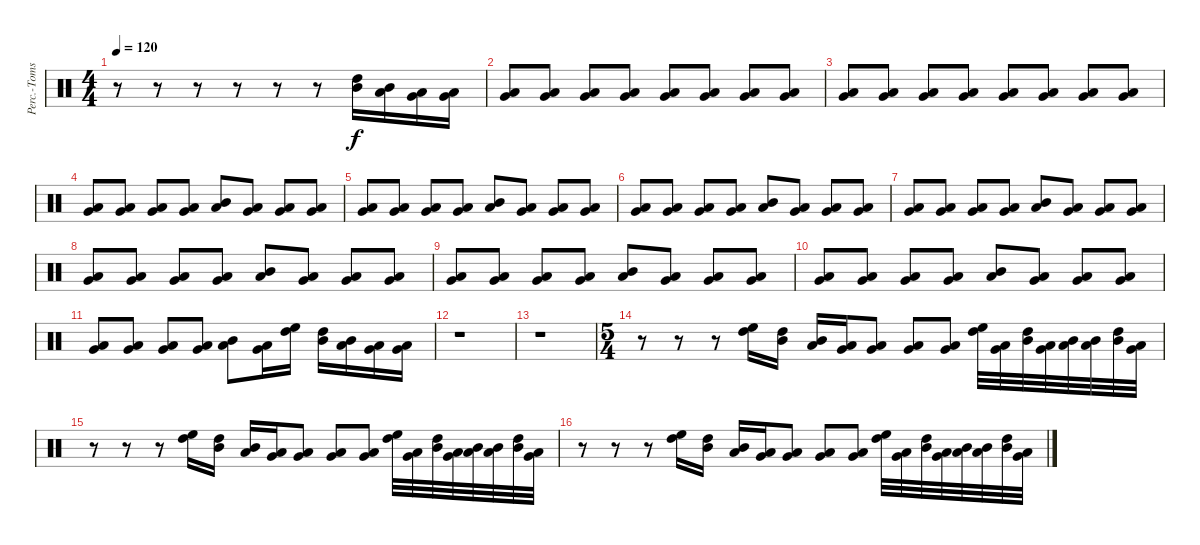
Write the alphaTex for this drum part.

\track ("Perc.-Toms " "Perc.-Toms") {instrument percussion}
\staff {score}
\articulation defaults
\ts (4 4)
\tempo 120
\clef neutral
\ks c
r.8{dy f} r.8 r.8 r.8 r.8 r.8 ("High Tom (hit)" "Mid Tom (hit)").16 ("Mid Tom (hit)" "Low Tom (hit)").16 ("Low Tom (hit)" "Very Low Tom (hit)").16 ("Very Low Tom (hit)" "Low Floor Tom (hit)").16 |
("Low Tom (hit)" "Very Low Tom (hit)").8 ("Very Low Tom (hit)" "Low Floor Tom (hit)").8 ("Low Tom (hit)" "Very Low Tom (hit)").8 ("Very Low Tom (hit)" "Low Floor Tom (hit)").8 ("Low Tom (hit)" "Very Low Tom (hit)").8 ("Very Low Tom (hit)" "Low Floor Tom (hit)").8 ("Low Tom (hit)" "Very Low Tom (hit)").8 ("Very Low Tom (hit)" "Low Floor Tom (hit)").8 |
("Low Tom (hit)" "Very Low Tom (hit)").8 ("Very Low Tom (hit)" "Low Floor Tom (hit)").8 ("Low Tom (hit)" "Very Low Tom (hit)").8 ("Very Low Tom (hit)" "Low Floor Tom (hit)").8 ("Low Tom (hit)" "Very Low Tom (hit)").8 ("Very Low Tom (hit)" "Low Floor Tom (hit)").8 ("Low Tom (hit)" "Very Low Tom (hit)").8 ("Very Low Tom (hit)" "Low Floor Tom (hit)").8 |
("Very Low Tom (hit)" "Low Floor Tom (hit)").8 ("Low Tom (hit)" "Very Low Tom (hit)").8 ("Low Tom (hit)" "Very Low Tom (hit)").8 ("Low Tom (hit)" "Very Low Tom (hit)").8 ("Mid Tom (hit)" "Low Tom (hit)").8 ("Low Tom (hit)" "Very Low Tom (hit)").8 ("Low Tom (hit)" "Very Low Tom (hit)").8 ("Low Tom (hit)" "Very Low Tom (hit)").8 |
("Very Low Tom (hit)" "Low Floor Tom (hit)").8 ("Low Tom (hit)" "Very Low Tom (hit)").8 ("Low Tom (hit)" "Very Low Tom (hit)").8 ("Low Tom (hit)" "Very Low Tom (hit)").8 ("Mid Tom (hit)" "Low Tom (hit)").8 ("Low Tom (hit)" "Very Low Tom (hit)").8 ("Low Tom (hit)" "Very Low Tom (hit)").8 ("Low Tom (hit)" "Very Low Tom (hit)").8 |
("Very Low Tom (hit)" "Low Floor Tom (hit)").8 ("Low Tom (hit)" "Very Low Tom (hit)").8 ("Low Tom (hit)" "Very Low Tom (hit)").8 ("Low Tom (hit)" "Very Low Tom (hit)").8 ("Mid Tom (hit)" "Low Tom (hit)").8 ("Low Tom (hit)" "Very Low Tom (hit)").8 ("Low Tom (hit)" "Very Low Tom (hit)").8 ("Low Tom (hit)" "Very Low Tom (hit)").8 |
("Very Low Tom (hit)" "Low Floor Tom (hit)").8 ("Low Tom (hit)" "Very Low Tom (hit)").8 ("Low Tom (hit)" "Very Low Tom (hit)").8 ("Low Tom (hit)" "Very Low Tom (hit)").8 ("Mid Tom (hit)" "Low Tom (hit)").8 ("Low Tom (hit)" "Very Low Tom (hit)").8 ("Low Tom (hit)" "Very Low Tom (hit)").8 ("Low Tom (hit)" "Very Low Tom (hit)").8 |
("Very Low Tom (hit)" "Low Floor Tom (hit)").8 ("Low Tom (hit)" "Very Low Tom (hit)").8 ("Low Tom (hit)" "Very Low Tom (hit)").8 ("Low Tom (hit)" "Very Low Tom (hit)").8 ("Mid Tom (hit)" "Low Tom (hit)").8 ("Low Tom (hit)" "Very Low Tom (hit)").8 ("Low Tom (hit)" "Very Low Tom (hit)").8 ("Low Tom (hit)" "Very Low Tom (hit)").8 |
("Very Low Tom (hit)" "Low Floor Tom (hit)").8 ("Low Tom (hit)" "Very Low Tom (hit)").8 ("Low Tom (hit)" "Very Low Tom (hit)").8 ("Low Tom (hit)" "Very Low Tom (hit)").8 ("Mid Tom (hit)" "Low Tom (hit)").8 ("Low Tom (hit)" "Very Low Tom (hit)").8 ("Low Tom (hit)" "Very Low Tom (hit)").8 ("Low Tom (hit)" "Very Low Tom (hit)").8 |
("Very Low Tom (hit)" "Low Floor Tom (hit)").8 ("Low Tom (hit)" "Very Low Tom (hit)").8 ("Low Tom (hit)" "Very Low Tom (hit)").8 ("Low Tom (hit)" "Very Low Tom (hit)").8 ("Mid Tom (hit)" "Low Tom (hit)").8 ("Low Tom (hit)" "Very Low Tom (hit)").8 ("Low Tom (hit)" "Very Low Tom (hit)").8 ("Low Tom (hit)" "Very Low Tom (hit)").8 |
("Very Low Tom (hit)" "Low Floor Tom (hit)").8 ("Low Tom (hit)" "Very Low Tom (hit)").8 ("Low Tom (hit)" "Very Low Tom (hit)").8 ("Low Tom (hit)" "Very Low Tom (hit)").8 ("Mid Tom (hit)" "Low Tom (hit)").8 ("Low Tom (hit)" "Very Low Tom (hit)").16 ("High Floor Tom (hit)" "High Tom (hit)").16 ("High Tom (hit)" "Mid Tom (hit)").16 ("Mid Tom (hit)" "Low Tom (hit)").16 ("Low Tom (hit)" "Very Low Tom (hit)").16 ("Very Low Tom (hit)" "Low Floor Tom (hit)").16 |
r.1 |
r.1 |
\ts (5 4)
r.8 r.8 r.8 ("High Floor Tom (hit)" "High Tom (hit)").16 ("High Tom (hit)" "Mid Tom (hit)").16 ("Mid Tom (hit)" "Low Tom (hit)").16 ("Low Tom (hit)" "Very Low Tom (hit)").16 ("Very Low Tom (hit)" "Low Floor Tom (hit)").8 ("Very Low Tom (hit)" "Low Floor Tom (hit)").8 ("Very Low Tom (hit)" "Low Floor Tom (hit)").8 ("High Floor Tom (hit)" "High Tom (hit)").32 ("Very Low Tom (hit)" "Low Floor Tom (hit)").32 ("High Tom (hit)" "Mid Tom (hit)").32 ("Low Tom (hit)" "Very Low Tom (hit)").32 ("Mid Tom (hit)" "Low Tom (hit)").32 ("Low Tom (hit)" "Mid Tom (hit)").32 ("High Tom (hit)" "Mid Tom (hit)").32 ("Very Low Tom (hit)" "Low Floor Tom (hit)").32 |
r.8 r.8 r.8 ("High Floor Tom (hit)" "High Tom (hit)").16 ("High Tom (hit)" "Mid Tom (hit)").16 ("Mid Tom (hit)" "Low Tom (hit)").16 ("Low Tom (hit)" "Very Low Tom (hit)").16 ("Very Low Tom (hit)" "Low Floor Tom (hit)").8 ("Very Low Tom (hit)" "Low Floor Tom (hit)").8 ("Very Low Tom (hit)" "Low Floor Tom (hit)").8 ("High Floor Tom (hit)" "High Tom (hit)").32 ("Very Low Tom (hit)" "Low Floor Tom (hit)").32 ("High Tom (hit)" "Mid Tom (hit)").32 ("Low Tom (hit)" "Very Low Tom (hit)").32 ("Mid Tom (hit)" "Low Tom (hit)").32 ("Low Tom (hit)" "Mid Tom (hit)").32 ("High Tom (hit)" "Mid Tom (hit)").32 ("Very Low Tom (hit)" "Low Floor Tom (hit)").32 |
r.8 r.8 r.8 ("High Floor Tom (hit)" "High Tom (hit)").16 ("High Tom (hit)" "Mid Tom (hit)").16 ("Mid Tom (hit)" "Low Tom (hit)").16 ("Low Tom (hit)" "Very Low Tom (hit)").16 ("Very Low Tom (hit)" "Low Floor Tom (hit)").8 ("Very Low Tom (hit)" "Low Floor Tom (hit)").8 ("Very Low Tom (hit)" "Low Floor Tom (hit)").8 ("High Floor Tom (hit)" "High Tom (hit)").32 ("Very Low Tom (hit)" "Low Floor Tom (hit)").32 ("High Tom (hit)" "Mid Tom (hit)").32 ("Low Tom (hit)" "Very Low Tom (hit)").32 ("Mid Tom (hit)" "Low Tom (hit)").32 ("Low Tom (hit)" "Mid Tom (hit)").32 ("High Tom (hit)" "Mid Tom (hit)").32 ("Very Low Tom (hit)" "Low Floor Tom (hit)").32
